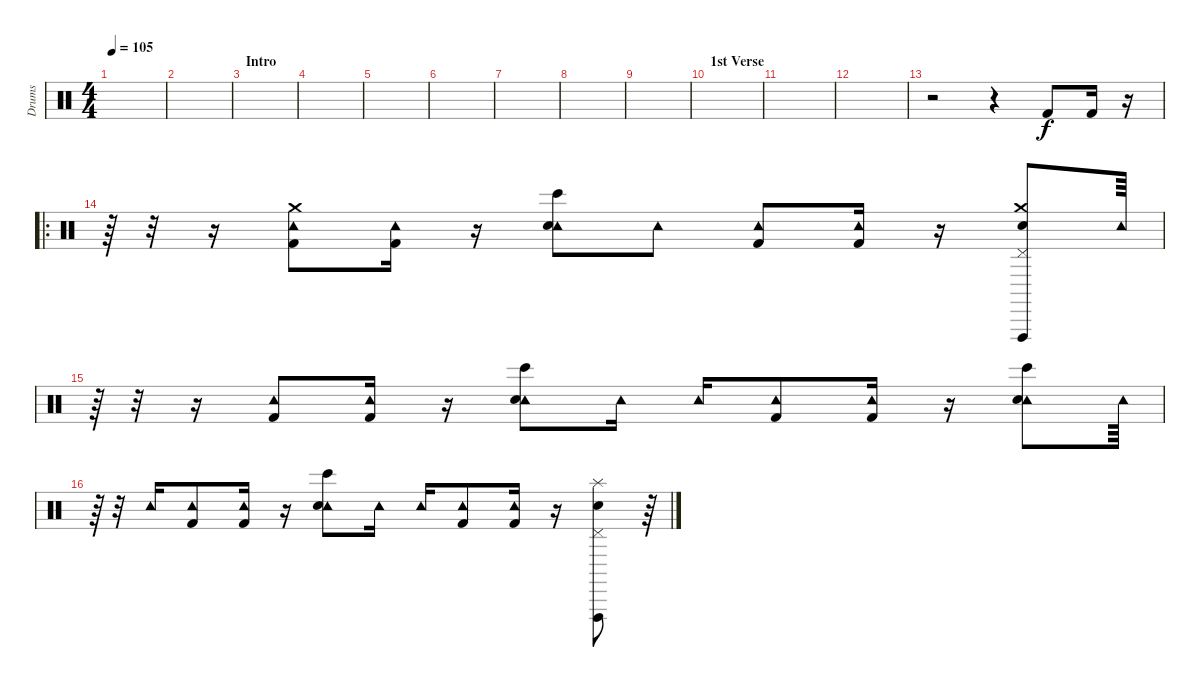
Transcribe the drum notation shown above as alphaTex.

\track ("Drums" "Drums") {instrument percussion}
\staff {score}
\articulation defaults
\ts (4 4)
\tempo 105
\clef neutral
\ks c
|
|
\section ("" "Intro")
|
|
|
|
|
|
|
\section ("" "1st Verse")
|
|
|
r.2 r.4 "Kick (hit) 2".8 "Kick (hit) 2".16 r.16 |
\ro
r.64 r.32 r.16 ("Tambourine (hit)" "Kick (hit) 2" "Crash medium (hit)").8 ("Tambourine (hit)" "Kick (hit) 2").16 r.16 ("Tambourine (hit)" "Electric Snare (hit)" "Bongo High (hit)").8 "Tambourine (hit)".8 ("Tambourine (hit)" "Kick (hit) 2").8 ("Tambourine (hit)" "Kick (hit) 2").16 r.16 ("Crash medium (hit)" "Pedal Hi-Hat (hit)" "Electric Snare (hit)" "Vibraslap (hit)").8 "Tambourine (hit)".64 |
r.64 r.32 r.16 ("Tambourine (hit)" "Kick (hit) 2").8 ("Tambourine (hit)" "Kick (hit) 2").16 r.16 ("Tambourine (hit)" "Electric Snare (hit)" "Bongo High (hit)").8 "Tambourine (hit)".16 "Tambourine (hit)".16 ("Tambourine (hit)" "Kick (hit) 2").8 ("Tambourine (hit)" "Kick (hit) 2").16 r.16 ("Tambourine (hit)" "Electric Snare (hit)" "Bongo High (hit)").8 "Tambourine (hit)".64 |
r.64 r.32 "Tambourine (hit)".16 ("Tambourine (hit)" "Kick (hit) 2").8 ("Tambourine (hit)" "Kick (hit) 2").16 r.16 ("Tambourine (hit)" "Electric Snare (hit)" "Bongo High (hit)").8 "Tambourine (hit)".16 "Tambourine (hit)".16 ("Tambourine (hit)" "Kick (hit) 2").8 ("Tambourine (hit)" "Kick (hit) 2").16 r.16 ("Splash (hit)" "Electric Snare (hit)" "Pedal Hi-Hat (hit)" "Vibraslap (hit)").8 r.64
